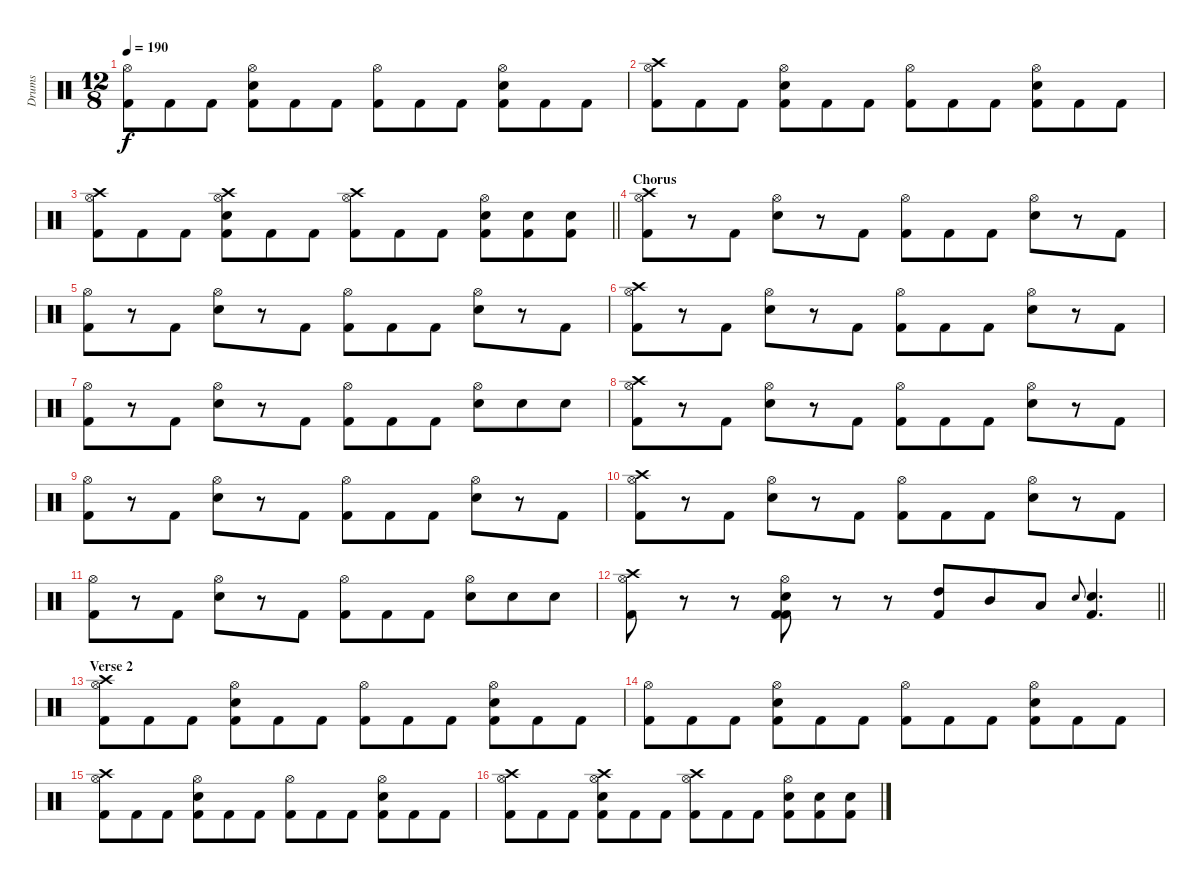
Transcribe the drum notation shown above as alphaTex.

\track ("Drums" "Drums") {instrument percussion}
\staff {score}
\articulation defaults
\ts (12 8)
\tempo 190
\clef neutral
\ks c
("Hi-Hat (open)" "Kick (hit) 2").8{dy f} "Kick (hit) 2".8 "Kick (hit) 2".8 ("Hi-Hat (open)" "Snare (hit) 2" "Kick (hit) 2").8 "Kick (hit) 2".8 "Kick (hit) 2".8 ("Hi-Hat (open)" "Kick (hit) 2").8 "Kick (hit) 2".8 "Kick (hit) 2".8 ("Hi-Hat (open)" "Snare (hit) 2" "Kick (hit) 2").8 "Kick (hit) 2".8 "Kick (hit) 2".8 |
("Crash high (hit)" "Hi-Hat (open)" "Kick (hit) 2").8 "Kick (hit) 2".8 "Kick (hit) 2".8 ("Hi-Hat (open)" "Snare (hit) 2" "Kick (hit) 2").8 "Kick (hit) 2".8 "Kick (hit) 2".8 ("Hi-Hat (open)" "Kick (hit) 2").8 "Kick (hit) 2".8 "Kick (hit) 2".8 ("Hi-Hat (open)" "Snare (hit) 2" "Kick (hit) 2").8 "Kick (hit) 2".8 "Kick (hit) 2".8 |
\barLineRight lightlight
("Crash high (hit)" "Hi-Hat (open)" "Kick (hit) 2").8 "Kick (hit) 2".8 "Kick (hit) 2".8 ("Crash high (hit)" "Hi-Hat (open)" "Snare (hit) 2" "Kick (hit) 2").8 "Kick (hit) 2".8 "Kick (hit) 2".8 ("Crash high (hit)" "Hi-Hat (open)" "Kick (hit) 2").8 "Kick (hit) 2".8 "Kick (hit) 2".8 ("Hi-Hat (open)" "Snare (hit) 2" "Kick (hit) 2").8 ("Snare (hit) 2" "Kick (hit) 2").8 ("Snare (hit) 2" "Kick (hit) 2").8 |
\section ("" "Chorus")
("Crash high (hit)" "Hi-Hat (open)" "Kick (hit) 2").8 r.8 "Kick (hit) 2".8 ("Hi-Hat (open)" "Snare (hit) 2").8 r.8 "Kick (hit) 2".8 ("Hi-Hat (open)" "Kick (hit) 2").8 "Kick (hit) 2".8 "Kick (hit) 2".8 ("Hi-Hat (open)" "Snare (hit) 2").8 r.8 "Kick (hit) 2".8 |
("Hi-Hat (open)" "Kick (hit) 2").8 r.8 "Kick (hit) 2".8 ("Hi-Hat (open)" "Snare (hit) 2").8 r.8 "Kick (hit) 2".8 ("Hi-Hat (open)" "Kick (hit) 2").8 "Kick (hit) 2".8 "Kick (hit) 2".8 ("Hi-Hat (open)" "Snare (hit) 2").8 r.8 "Kick (hit) 2".8 |
("Crash high (hit)" "Hi-Hat (open)" "Kick (hit) 2").8 r.8 "Kick (hit) 2".8 ("Hi-Hat (open)" "Snare (hit) 2").8 r.8 "Kick (hit) 2".8 ("Hi-Hat (open)" "Kick (hit) 2").8 "Kick (hit) 2".8 "Kick (hit) 2".8 ("Hi-Hat (open)" "Snare (hit) 2").8 r.8 "Kick (hit) 2".8 |
("Hi-Hat (open)" "Kick (hit) 2").8 r.8 "Kick (hit) 2".8 ("Hi-Hat (open)" "Snare (hit) 2").8 r.8 "Kick (hit) 2".8 ("Hi-Hat (open)" "Kick (hit) 2").8 "Kick (hit) 2".8 "Kick (hit) 2".8 ("Hi-Hat (open)" "Snare (hit) 2").8 "Snare (hit) 2".8 "Snare (hit) 2".8 |
("Crash high (hit)" "Hi-Hat (open)" "Kick (hit) 2").8 r.8 "Kick (hit) 2".8 ("Hi-Hat (open)" "Snare (hit) 2").8 r.8 "Kick (hit) 2".8 ("Hi-Hat (open)" "Kick (hit) 2").8 "Kick (hit) 2".8 "Kick (hit) 2".8 ("Hi-Hat (open)" "Snare (hit) 2").8 r.8 "Kick (hit) 2".8 |
("Hi-Hat (open)" "Kick (hit) 2").8 r.8 "Kick (hit) 2".8 ("Hi-Hat (open)" "Snare (hit) 2").8 r.8 "Kick (hit) 2".8 ("Hi-Hat (open)" "Kick (hit) 2").8 "Kick (hit) 2".8 "Kick (hit) 2".8 ("Hi-Hat (open)" "Snare (hit) 2").8 r.8 "Kick (hit) 2".8 |
("Crash high (hit)" "Hi-Hat (open)" "Kick (hit) 2").8 r.8 "Kick (hit) 2".8 ("Hi-Hat (open)" "Snare (hit) 2").8 r.8 "Kick (hit) 2".8 ("Hi-Hat (open)" "Kick (hit) 2").8 "Kick (hit) 2".8 "Kick (hit) 2".8 ("Hi-Hat (open)" "Snare (hit) 2").8 r.8 "Kick (hit) 2".8 |
("Hi-Hat (open)" "Kick (hit) 2").8 r.8 "Kick (hit) 2".8 ("Hi-Hat (open)" "Snare (hit) 2").8 r.8 "Kick (hit) 2".8 ("Hi-Hat (open)" "Kick (hit) 2").8 "Kick (hit) 2".8 "Kick (hit) 2".8 ("Hi-Hat (open)" "Snare (hit) 2").8 "Snare (hit) 2".8 "Snare (hit) 2".8 |
\barLineRight lightlight
("Crash high (hit)" "Hi-Hat (open)" "Kick (hit) 2").8 r.8 r.8 ("Hi-Hat (open)" "Kick (hit) 2" "Snare (hit) 2" "Kick (hit) 2").8 r.8 r.8 ("High Tom (hit)" "Kick (hit) 2").8 "Mid Tom (hit)".8 "Low Tom (hit)".8 "Snare (hit) 2".8{gr onbeat} ("Snare (hit) 2" "Kick (hit) 2").4{d} |
\section ("" "Verse 2")
("Crash high (hit)" "Hi-Hat (open)" "Kick (hit) 2").8 "Kick (hit) 2".8 "Kick (hit) 2".8 ("Hi-Hat (open)" "Snare (hit) 2" "Kick (hit) 2").8 "Kick (hit) 2".8 "Kick (hit) 2".8 ("Hi-Hat (open)" "Kick (hit) 2").8 "Kick (hit) 2".8 "Kick (hit) 2".8 ("Hi-Hat (open)" "Snare (hit) 2" "Kick (hit) 2").8 "Kick (hit) 2".8 "Kick (hit) 2".8 |
("Hi-Hat (open)" "Kick (hit) 2").8 "Kick (hit) 2".8 "Kick (hit) 2".8 ("Hi-Hat (open)" "Snare (hit) 2" "Kick (hit) 2").8 "Kick (hit) 2".8 "Kick (hit) 2".8 ("Hi-Hat (open)" "Kick (hit) 2").8 "Kick (hit) 2".8 "Kick (hit) 2".8 ("Hi-Hat (open)" "Snare (hit) 2" "Kick (hit) 2").8 "Kick (hit) 2".8 "Kick (hit) 2".8 |
("Crash high (hit)" "Hi-Hat (open)" "Kick (hit) 2").8 "Kick (hit) 2".8 "Kick (hit) 2".8 ("Hi-Hat (open)" "Snare (hit) 2" "Kick (hit) 2").8 "Kick (hit) 2".8 "Kick (hit) 2".8 ("Hi-Hat (open)" "Kick (hit) 2").8 "Kick (hit) 2".8 "Kick (hit) 2".8 ("Hi-Hat (open)" "Snare (hit) 2" "Kick (hit) 2").8 "Kick (hit) 2".8 "Kick (hit) 2".8 |
("Crash high (hit)" "Hi-Hat (open)" "Kick (hit) 2").8 "Kick (hit) 2".8 "Kick (hit) 2".8 ("Crash high (hit)" "Hi-Hat (open)" "Snare (hit) 2" "Kick (hit) 2").8 "Kick (hit) 2".8 "Kick (hit) 2".8 ("Crash high (hit)" "Hi-Hat (open)" "Kick (hit) 2").8 "Kick (hit) 2".8 "Kick (hit) 2".8 ("Hi-Hat (open)" "Snare (hit) 2" "Kick (hit) 2").8 ("Snare (hit) 2" "Kick (hit) 2").8 ("Snare (hit) 2" "Kick (hit) 2").8
